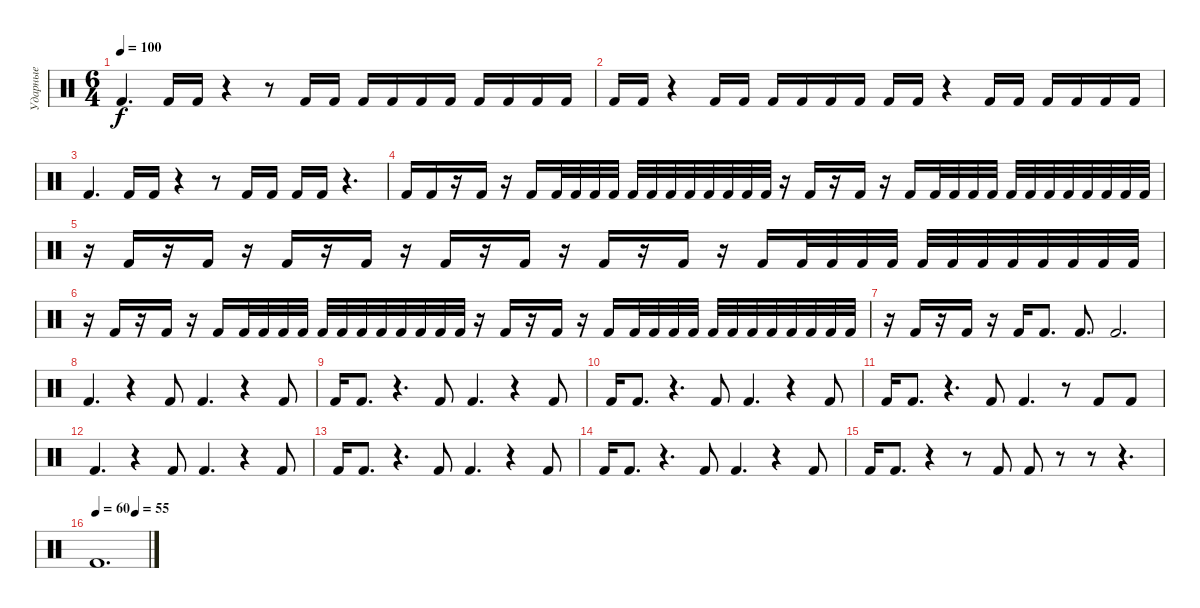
\track ("Ударные" "Ударные") {instrument percussion}
\staff {score}
\articulation defaults
\ts (6 4)
\tempo 100
\clef neutral
\ks c "Kick (hit) 2".4{d dy f} "Kick (hit) 2".16 "Kick (hit) 2".16
r.4 r.8 "Kick (hit) 2".16 "Kick (hit) 2".16 "Kick (hit) 2".16 "Kick (hit) 2".16 "Kick (hit) 2".16 "Kick (hit) 2".16 "Kick (hit) 2".16 "Kick (hit) 2".16 "Kick (hit) 2".16 "Kick (hit) 2".16 |
"Kick (hit) 2".16 "Kick (hit) 2".16 r.4 "Kick (hit) 2".16 "Kick (hit) 2".16 "Kick (hit) 2".16 "Kick (hit) 2".16 "Kick (hit) 2".16 "Kick (hit) 2".16 "Kick (hit) 2".16 "Kick (hit) 2".16 r.4 "Kick (hit) 2".16 "Kick (hit) 2".16 "Kick (hit) 2".16 "Kick (hit) 2".16 "Kick (hit) 2".16 "Kick (hit) 2".16 |
"Kick (hit) 2".4{d} "Kick (hit) 2".16 "Kick (hit) 2".16 r.4 r.8 "Kick (hit) 2".16 "Kick (hit) 2".16 "Kick (hit) 2".16 "Kick (hit) 2".16 r.4{d} |
"Kick (hit) 2".16 "Kick (hit) 2".16 r.16 "Kick (hit) 2".16 r.16 "Kick (hit) 2".16 "Kick (hit) 2".32 "Kick (hit) 2".32 "Kick (hit) 2".32 "Kick (hit) 2".32 "Kick (hit) 2".32 "Kick (hit) 2".32 "Kick (hit) 2".32 "Kick (hit) 2".32 "Kick (hit) 2".32 "Kick (hit) 2".32 "Kick (hit) 2".32 "Kick (hit) 2".32 r.16 "Kick (hit) 2".16 r.16 "Kick (hit) 2".16 r.16 "Kick (hit) 2".16 "Kick (hit) 2".32 "Kick (hit) 2".32 "Kick (hit) 2".32 "Kick (hit) 2".32 "Kick (hit) 2".32 "Kick (hit) 2".32 "Kick (hit) 2".32 "Kick (hit) 2".32 "Kick (hit) 2".32 "Kick (hit) 2".32 "Kick (hit) 2".32 "Kick (hit) 2".32 |
r.16 "Kick (hit) 2".16 r.16 "Kick (hit) 2".16 r.16 "Kick (hit) 2".16 r.16 "Kick (hit) 2".16 r.16 "Kick (hit) 2".16 r.16 "Kick (hit) 2".16 r.16 "Kick (hit) 2".16 r.16 "Kick (hit) 2".16 r.16 "Kick (hit) 2".16 "Kick (hit) 2".32 "Kick (hit) 2".32 "Kick (hit) 2".32 "Kick (hit) 2".32 "Kick (hit) 2".32 "Kick (hit) 2".32 "Kick (hit) 2".32 "Kick (hit) 2".32 "Kick (hit) 2".32 "Kick (hit) 2".32 "Kick (hit) 2".32 "Kick (hit) 2".32 |
r.16 "Kick (hit) 2".16 r.16 "Kick (hit) 2".16 r.16 "Kick (hit) 2".16 "Kick (hit) 2".32 "Kick (hit) 2".32 "Kick (hit) 2".32 "Kick (hit) 2".32 "Kick (hit) 2".32 "Kick (hit) 2".32 "Kick (hit) 2".32 "Kick (hit) 2".32 "Kick (hit) 2".32 "Kick (hit) 2".32 "Kick (hit) 2".32 "Kick (hit) 2".32 r.16 "Kick (hit) 2".16 r.16 "Kick (hit) 2".16 r.16 "Kick (hit) 2".16 "Kick (hit) 2".32 "Kick (hit) 2".32 "Kick (hit) 2".32 "Kick (hit) 2".32 "Kick (hit) 2".32 "Kick (hit) 2".32 "Kick (hit) 2".32 "Kick (hit) 2".32 "Kick (hit) 2".32 "Kick (hit) 2".32 "Kick (hit) 2".32 "Kick (hit) 2".32 |
r.16 "Kick (hit) 2".16 r.16 "Kick (hit) 2".16 r.16 "Kick (hit) 2".16 "Kick (hit) 2".8{d} "Kick (hit) 2".8{d} "Kick (hit) 2".2{d} |
"Kick (hit) 2".4{d} r.4 "Kick (hit) 2".8 "Kick (hit) 2".4{d} r.4 "Kick (hit) 2".8 |
"Kick (hit) 2".16 "Kick (hit) 2".8{d} r.4{d} "Kick (hit) 2".8 "Kick (hit) 2".4{d} r.4 "Kick (hit) 2".8 |
"Kick (hit) 2".16 "Kick (hit) 2".8{d} r.4{d} "Kick (hit) 2".8 "Kick (hit) 2".4{d} r.4 "Kick (hit) 2".8 |
"Kick (hit) 2".16 "Kick (hit) 2".8{d} r.4{d} "Kick (hit) 2".8 "Kick (hit) 2".4{d} r.8 "Kick (hit) 2".8 "Kick (hit) 2".8 |
"Kick (hit) 2".4{d} r.4 "Kick (hit) 2".8 "Kick (hit) 2".4{d} r.4 "Kick (hit) 2".8 |
"Kick (hit) 2".16 "Kick (hit) 2".8{d} r.4{d} "Kick (hit) 2".8 "Kick (hit) 2".4{d} r.4 "Kick (hit) 2".8 |
"Kick (hit) 2".16 "Kick (hit) 2".8{d} r.4{d} "Kick (hit) 2".8 "Kick (hit) 2".4{d} r.4 "Kick (hit) 2".8 |
"Kick (hit) 2".16 "Kick (hit) 2".8{d} r.4 r.8 "Kick (hit) 2".8 "Kick (hit) 2".8 r.8 r.8 r.4{d} |
\tempo 60
\tempo (55 0.75)
"Kick (hit) 2".1{d}
